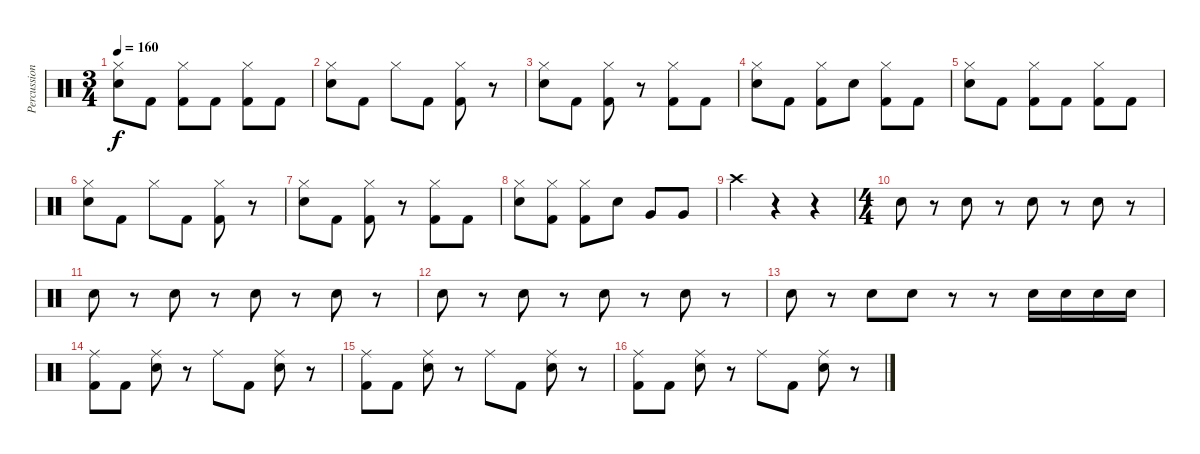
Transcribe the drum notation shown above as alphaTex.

\track ("Percussion" "Percussion") {instrument percussion}
\staff {score}
\articulation defaults
\ts (3 4)
\tempo 160
\clef neutral
\ks c
("Hi-Hat (closed)" "Electric Snare (hit)").8{dy f} "Kick (hit) 2".8 ("Hi-Hat (closed)" "Kick (hit) 2").8 "Kick (hit) 2".8 ("Hi-Hat (closed)" "Kick (hit) 2").8 "Kick (hit) 2".8 |
("Hi-Hat (closed)" "Electric Snare (hit)").8 "Kick (hit) 2".8 "Hi-Hat (closed)".8 "Kick (hit) 2".8 ("Hi-Hat (closed)" "Kick (hit) 2").8 r.8 |
("Hi-Hat (closed)" "Electric Snare (hit)").8 "Kick (hit) 2".8 ("Hi-Hat (closed)" "Kick (hit) 2").8 r.8 ("Hi-Hat (closed)" "Kick (hit) 2").8 "Kick (hit) 2".8 |
("Hi-Hat (closed)" "Electric Snare (hit)").8 "Kick (hit) 2".8 ("Hi-Hat (closed)" "Kick (hit) 2").8 "Electric Snare (hit)".8 ("Hi-Hat (closed)" "Kick (hit) 2").8 "Kick (hit) 2".8 |
("Hi-Hat (closed)" "Electric Snare (hit)").8 "Kick (hit) 2".8 ("Hi-Hat (closed)" "Kick (hit) 2").8 "Kick (hit) 2".8 ("Hi-Hat (closed)" "Kick (hit) 2").8 "Kick (hit) 2".8 |
("Hi-Hat (closed)" "Electric Snare (hit)").8 "Kick (hit) 2".8 "Hi-Hat (closed)".8 "Kick (hit) 2".8 ("Hi-Hat (closed)" "Kick (hit) 2").8 r.8 |
("Hi-Hat (closed)" "Electric Snare (hit)").8 "Kick (hit) 2".8 ("Hi-Hat (closed)" "Kick (hit) 2").8 r.8 ("Hi-Hat (closed)" "Kick (hit) 2").8 "Kick (hit) 2".8 |
("Hi-Hat (closed)" "Electric Snare (hit)").8 ("Hi-Hat (closed)" "Kick (hit) 2").8 ("Hi-Hat (closed)" "Kick (hit) 2").8 "Electric Snare (hit)".8 "Very Low Tom (hit)".8 "Very Low Tom (hit)".8 |
"Crash high (hit)".4 r.4 r.4 |
\ts (4 4)
"Electric Snare (hit)".8 r.8 "Electric Snare (hit)".8 r.8 "Electric Snare (hit)".8 r.8 "Electric Snare (hit)".8 r.8 |
"Electric Snare (hit)".8 r.8 "Electric Snare (hit)".8 r.8 "Electric Snare (hit)".8 r.8 "Electric Snare (hit)".8 r.8 |
"Electric Snare (hit)".8 r.8 "Electric Snare (hit)".8 r.8 "Electric Snare (hit)".8 r.8 "Electric Snare (hit)".8 r.8 |
"Electric Snare (hit)".8 r.8 "Electric Snare (hit)".8 "Electric Snare (hit)".8 r.8 r.8 "Electric Snare (hit)".16 "Electric Snare (hit)".16 "Electric Snare (hit)".16 "Electric Snare (hit)".16 |
("Ride (middle)" "Kick (hit) 2").8 "Kick (hit) 2".8 ("Ride (middle)" "Electric Snare (hit)").8 r.8 "Ride (middle)".8 "Kick (hit) 2".8 ("Ride (middle)" "Electric Snare (hit)").8 r.8 |
("Ride (middle)" "Kick (hit) 2").8 "Kick (hit) 2".8 ("Ride (middle)" "Electric Snare (hit)").8 r.8 "Ride (middle)".8 "Kick (hit) 2".8 ("Ride (middle)" "Electric Snare (hit)").8 r.8 |
("Ride (middle)" "Kick (hit) 2").8 "Kick (hit) 2".8 ("Ride (middle)" "Electric Snare (hit)").8 r.8 "Ride (middle)".8 "Kick (hit) 2".8 ("Ride (middle)" "Electric Snare (hit)").8 r.8
